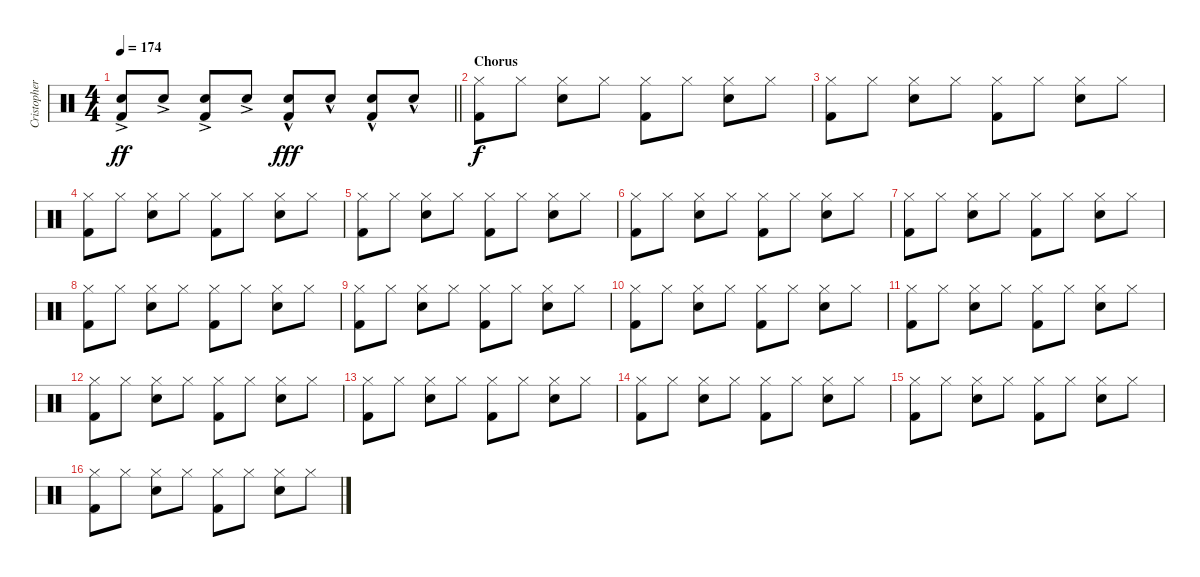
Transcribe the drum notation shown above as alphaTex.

\track ("Cristopher S. (Drums)" "Cristopher") {instrument percussion}
\staff {score}
\articulation defaults
\ts (4 4)
\tempo 174
\clef neutral
\barLineRight lightlight
\ks c
("Kick (hit) 2" "Electric Snare (hit)"{ac}).8{dy ff} "Electric Snare (hit)"{ac}.8 ("Kick (hit) 2" "Electric Snare (hit)"{ac}).8 "Electric Snare (hit)"{ac}.8 ("Kick (hit) 2" "Electric Snare (hit)"{hac}).8{dy fff} "Electric Snare (hit)"{hac}.8 ("Kick (hit) 2" "Electric Snare (hit)"{hac}).8 "Electric Snare (hit)"{hac}.8 |
\section ("" "Chorus")
("Kick (hit) 2" "Hi-Hat (closed)").8{dy f} "Hi-Hat (closed)".8 ("Electric Snare (hit)" "Hi-Hat (closed)").8 "Hi-Hat (closed)".8 ("Kick (hit) 2" "Hi-Hat (closed)").8 "Hi-Hat (closed)".8 ("Electric Snare (hit)" "Hi-Hat (closed)").8 "Hi-Hat (closed)".8 |
("Kick (hit) 2" "Hi-Hat (closed)").8 "Hi-Hat (closed)".8 ("Electric Snare (hit)" "Hi-Hat (closed)").8 "Hi-Hat (closed)".8 ("Kick (hit) 2" "Hi-Hat (closed)").8 "Hi-Hat (closed)".8 ("Electric Snare (hit)" "Hi-Hat (closed)").8 "Hi-Hat (closed)".8 |
("Kick (hit) 2" "Hi-Hat (closed)").8 "Hi-Hat (closed)".8 ("Electric Snare (hit)" "Hi-Hat (closed)").8 "Hi-Hat (closed)".8 ("Kick (hit) 2" "Hi-Hat (closed)").8 "Hi-Hat (closed)".8 ("Electric Snare (hit)" "Hi-Hat (closed)").8 "Hi-Hat (closed)".8 |
("Kick (hit) 2" "Hi-Hat (closed)").8 "Hi-Hat (closed)".8 ("Electric Snare (hit)" "Hi-Hat (closed)").8 "Hi-Hat (closed)".8 ("Kick (hit) 2" "Hi-Hat (closed)").8 "Hi-Hat (closed)".8 ("Electric Snare (hit)" "Hi-Hat (closed)").8 "Hi-Hat (closed)".8 |
("Kick (hit) 2" "Hi-Hat (closed)").8 "Hi-Hat (closed)".8 ("Electric Snare (hit)" "Hi-Hat (closed)").8 "Hi-Hat (closed)".8 ("Kick (hit) 2" "Hi-Hat (closed)").8 "Hi-Hat (closed)".8 ("Electric Snare (hit)" "Hi-Hat (closed)").8 "Hi-Hat (closed)".8 |
("Kick (hit) 2" "Hi-Hat (closed)").8 "Hi-Hat (closed)".8 ("Electric Snare (hit)" "Hi-Hat (closed)").8 "Hi-Hat (closed)".8 ("Kick (hit) 2" "Hi-Hat (closed)").8 "Hi-Hat (closed)".8 ("Electric Snare (hit)" "Hi-Hat (closed)").8 "Hi-Hat (closed)".8 |
("Kick (hit) 2" "Hi-Hat (closed)").8 "Hi-Hat (closed)".8 ("Electric Snare (hit)" "Hi-Hat (closed)").8 "Hi-Hat (closed)".8 ("Kick (hit) 2" "Hi-Hat (closed)").8 "Hi-Hat (closed)".8 ("Electric Snare (hit)" "Hi-Hat (closed)").8 "Hi-Hat (closed)".8 |
("Kick (hit) 2" "Hi-Hat (closed)").8 "Hi-Hat (closed)".8 ("Electric Snare (hit)" "Hi-Hat (closed)").8 "Hi-Hat (closed)".8 ("Kick (hit) 2" "Hi-Hat (closed)").8 "Hi-Hat (closed)".8 ("Electric Snare (hit)" "Hi-Hat (closed)").8 "Hi-Hat (closed)".8 |
("Kick (hit) 2" "Hi-Hat (closed)").8 "Hi-Hat (closed)".8 ("Electric Snare (hit)" "Hi-Hat (closed)").8 "Hi-Hat (closed)".8 ("Kick (hit) 2" "Hi-Hat (closed)").8 "Hi-Hat (closed)".8 ("Electric Snare (hit)" "Hi-Hat (closed)").8 "Hi-Hat (closed)".8 |
("Kick (hit) 2" "Hi-Hat (closed)").8 "Hi-Hat (closed)".8 ("Electric Snare (hit)" "Hi-Hat (closed)").8 "Hi-Hat (closed)".8 ("Kick (hit) 2" "Hi-Hat (closed)").8 "Hi-Hat (closed)".8 ("Electric Snare (hit)" "Hi-Hat (closed)").8 "Hi-Hat (closed)".8 |
("Kick (hit) 2" "Hi-Hat (closed)").8 "Hi-Hat (closed)".8 ("Electric Snare (hit)" "Hi-Hat (closed)").8 "Hi-Hat (closed)".8 ("Kick (hit) 2" "Hi-Hat (closed)").8 "Hi-Hat (closed)".8 ("Electric Snare (hit)" "Hi-Hat (closed)").8 "Hi-Hat (closed)".8 |
("Kick (hit) 2" "Hi-Hat (closed)").8 "Hi-Hat (closed)".8 ("Electric Snare (hit)" "Hi-Hat (closed)").8 "Hi-Hat (closed)".8 ("Kick (hit) 2" "Hi-Hat (closed)").8 "Hi-Hat (closed)".8 ("Electric Snare (hit)" "Hi-Hat (closed)").8 "Hi-Hat (closed)".8 |
("Kick (hit) 2" "Hi-Hat (closed)").8 "Hi-Hat (closed)".8 ("Electric Snare (hit)" "Hi-Hat (closed)").8 "Hi-Hat (closed)".8 ("Kick (hit) 2" "Hi-Hat (closed)").8 "Hi-Hat (closed)".8 ("Electric Snare (hit)" "Hi-Hat (closed)").8 "Hi-Hat (closed)".8 |
("Kick (hit) 2" "Hi-Hat (closed)").8 "Hi-Hat (closed)".8 ("Electric Snare (hit)" "Hi-Hat (closed)").8 "Hi-Hat (closed)".8 ("Kick (hit) 2" "Hi-Hat (closed)").8 "Hi-Hat (closed)".8 ("Electric Snare (hit)" "Hi-Hat (closed)").8 "Hi-Hat (closed)".8 |
("Kick (hit) 2" "Hi-Hat (closed)").8 "Hi-Hat (closed)".8 ("Electric Snare (hit)" "Hi-Hat (closed)").8 "Hi-Hat (closed)".8 ("Kick (hit) 2" "Hi-Hat (closed)").8 "Hi-Hat (closed)".8 ("Electric Snare (hit)" "Hi-Hat (closed)").8 "Hi-Hat (closed)".8
